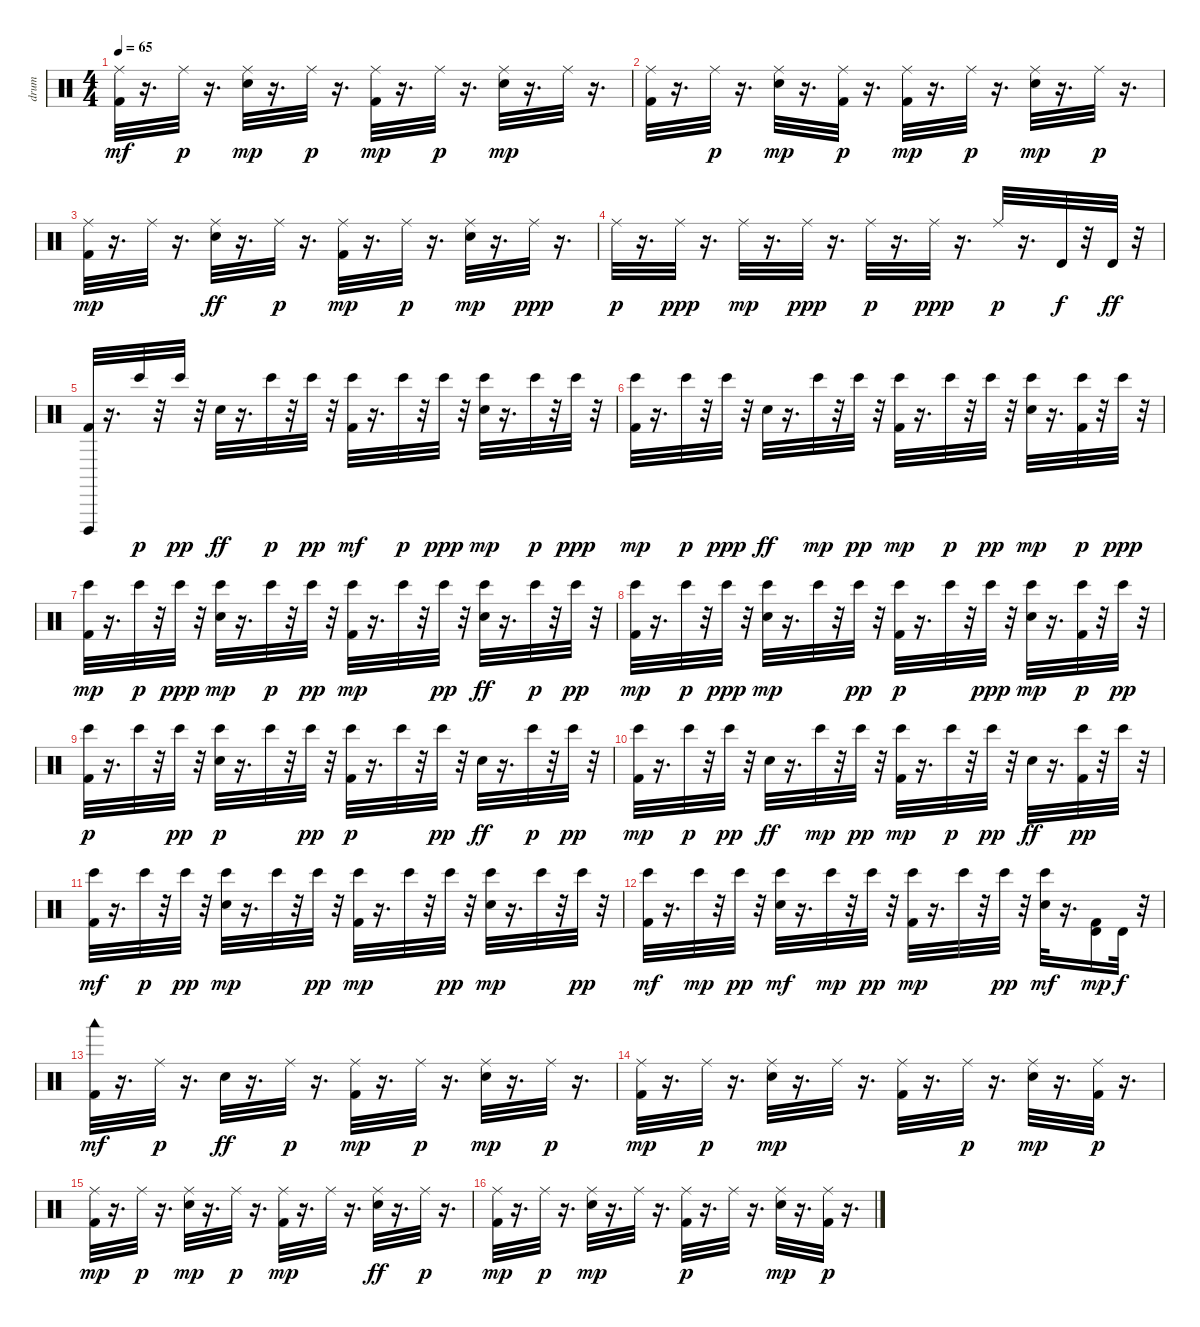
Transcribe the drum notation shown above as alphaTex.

\track ("drum" "drum") {instrument percussion}
\staff {score}
\articulation defaults
\ts (4 4)
\tempo 65
\clef neutral
\ks c
("Ride (middle)" "Kick (hit) 2").32{dy mf} r.16{d} "Ride (middle)".32{dy p} r.16{d} ("Snare (hit) 2" "Ride (middle)").32{dy mp} r.16{d} "Ride (middle)".32{dy p} r.16{d} ("Kick (hit) 2" "Ride (middle)").32{dy mp} r.16{d} "Ride (middle)".32{dy p} r.16{d} ("Snare (hit) 2" "Ride (middle)").32{dy mp} r.16{d} "Ride (middle)".32 r.16{d} |
("Kick (hit) 2" "Ride (middle)").32 r.16{d} "Ride (middle)".32{dy p} r.16{d} ("Snare (hit) 2" "Ride (middle)").32{dy mp} r.16{d} ("Kick (hit) 2" "Ride (middle)").32{dy p} r.16{d} ("Kick (hit) 2" "Ride (middle)").32{dy mp} r.16{d} "Ride (middle)".32{dy p} r.16{d} ("Snare (hit) 2" "Ride (middle)").32{dy mp} r.16{d} "Ride (middle)".32{dy p} r.16{d} |
("Ride (middle)" "Kick (hit) 2").32{dy mp} r.16{d} "Ride (middle)".32 r.16{d} ("Ride (middle)" "Snare (hit) 2").32{dy ff} r.16{d} "Ride (middle)".32{dy p} r.16{d} ("Kick (hit) 2" "Ride (middle)").32{dy mp} r.16{d} "Ride (middle)".32{dy p} r.16{d} ("Snare (hit) 2" "Ride (middle)").32{dy mp} r.16{d} "Ride (middle)".32{dy ppp} r.16{d} |
"Ride (middle)".32{dy p} r.16{d} "Ride (middle)".32{dy ppp} r.16{d} "Ride (middle)".32{dy mp} r.16{d} "Ride (middle)".32{dy ppp} r.16{d} "Ride (middle)".32{dy p} r.16{d} "Ride (middle)".32{dy ppp} r.16{d} "Ride (middle)".32{dy p} r.16{d} "Timbale high (hit)".32{dy f} r.32 "Timbale high (hit)".32{dy ff} r.32 |
("Kick (hit) 2" "Cuica (open)").32 r.16{d} "Bongo High (hit)".32{dy p} r.32 "Bongo High (hit)".32{dy pp} r.32 "Snare (hit) 2".32{dy ff} r.16{d} "Bongo High (hit)".32{dy p} r.32 "Bongo High (hit)".32{dy pp} r.32 ("Bongo High (hit)" "Kick (hit) 2").32{dy mf} r.16{d} "Bongo High (hit)".32{dy p} r.32 "Bongo High (hit)".32{dy ppp} r.32 ("Snare (hit) 2" "Bongo High (hit)").32{dy mp} r.16{d} "Bongo High (hit)".32{dy p} r.32 "Bongo High (hit)".32{dy ppp} r.32 |
("Kick (hit) 2" "Bongo High (hit)").32{dy mp} r.16{d} "Bongo High (hit)".32{dy p} r.32 "Bongo High (hit)".32{dy ppp} r.32 "Snare (hit) 2".32{dy ff} r.16{d} "Bongo High (hit)".32{dy mp} r.32 "Bongo High (hit)".32{dy pp} r.32 ("Kick (hit) 2" "Bongo High (hit)").32{dy mp} r.16{d} "Bongo High (hit)".32{dy p} r.32 "Bongo High (hit)".32{dy pp} r.32 ("Snare (hit) 2" "Bongo High (hit)").32{dy mp} r.16{d} ("Kick (hit) 2" "Bongo High (hit)").32{dy p} r.32 "Bongo High (hit)".32{dy ppp} r.32 |
("Kick (hit) 2" "Bongo High (hit)").32{dy mp} r.16{d} "Bongo High (hit)".32{dy p} r.32 "Bongo High (hit)".32{dy ppp} r.32 ("Snare (hit) 2" "Bongo High (hit)").32{dy mp} r.16{d} "Bongo High (hit)".32{dy p} r.32 "Bongo High (hit)".32{dy pp} r.32 ("Bongo High (hit)" "Kick (hit) 2").32{dy mp} r.16{d} "Bongo High (hit)".32 r.32 "Bongo High (hit)".32{dy pp} r.32 ("Bongo High (hit)" "Snare (hit) 2").32{dy ff} r.16{d} "Bongo High (hit)".32{dy p} r.32 "Bongo High (hit)".32{dy pp} r.32 |
("Kick (hit) 2" "Bongo High (hit)").32{dy mp} r.16{d} "Bongo High (hit)".32{dy p} r.32 "Bongo High (hit)".32{dy ppp} r.32 ("Snare (hit) 2" "Bongo High (hit)").32{dy mp} r.16{d} "Bongo High (hit)".32 r.32 "Bongo High (hit)".32{dy pp} r.32 ("Kick (hit) 2" "Bongo High (hit)").32{dy p} r.16{d} "Bongo High (hit)".32 r.32 "Bongo High (hit)".32{dy ppp} r.32 ("Snare (hit) 2" "Bongo High (hit)").32{dy mp} r.16{d} ("Kick (hit) 2" "Bongo High (hit)").32{dy p} r.32 "Bongo High (hit)".32{dy pp} r.32 |
("Kick (hit) 2" "Bongo High (hit)").32{dy p} r.16{d} "Bongo High (hit)".32 r.32 "Bongo High (hit)".32{dy pp} r.32 ("Snare (hit) 2" "Bongo High (hit)").32{dy p} r.16{d} "Bongo High (hit)".32 r.32 "Bongo High (hit)".32{dy pp} r.32 ("Kick (hit) 2" "Bongo High (hit)").32{dy p} r.16{d} "Bongo High (hit)".32 r.32 "Bongo High (hit)".32{dy pp} r.32 "Snare (hit) 2".32{dy ff} r.16{d} "Bongo High (hit)".32{dy p} r.32 "Bongo High (hit)".32{dy pp} r.32 |
("Bongo High (hit)" "Kick (hit) 2").32{dy mp} r.16{d} "Bongo High (hit)".32{dy p} r.32 "Bongo High (hit)".32{dy pp} r.32 "Snare (hit) 2".32{dy ff} r.16{d} "Bongo High (hit)".32{dy mp} r.32 "Bongo High (hit)".32{dy pp} r.32 ("Kick (hit) 2" "Bongo High (hit)").32{dy mp} r.16{d} "Bongo High (hit)".32{dy p} r.32 "Bongo High (hit)".32{dy pp} r.32 "Snare (hit) 2".32{dy ff} r.16{d} ("Kick (hit) 2" "Bongo High (hit)").32{dy pp} r.32 "Bongo High (hit)".32 r.32 |
("Bongo High (hit)" "Kick (hit) 2").32{dy mf} r.16{d} "Bongo High (hit)".32{dy p} r.32 "Bongo High (hit)".32{dy pp} r.32 ("Snare (hit) 2" "Bongo High (hit)").32{dy mp} r.16{d} "Bongo High (hit)".32 r.32 "Bongo High (hit)".32{dy pp} r.32 ("Bongo High (hit)" "Kick (hit) 2").32{dy mp} r.16{d} "Bongo High (hit)".32 r.32 "Bongo High (hit)".32{dy pp} r.32 ("Snare (hit) 2" "Bongo High (hit)").32{dy mp} r.16{d} "Bongo High (hit)".32 r.32 "Bongo High (hit)".32{dy pp} r.32 |
("Bongo High (hit)" "Kick (hit) 2").32{dy mf} r.16{d} "Bongo High (hit)".32{dy mp} r.32 "Bongo High (hit)".32{dy pp} r.32 ("Snare (hit) 2" "Bongo High (hit)").32{dy mf} r.16{d} "Bongo High (hit)".32{dy mp} r.32 "Bongo High (hit)".32{dy pp} r.32 ("Kick (hit) 2" "Bongo High (hit)").32{dy mp} r.16{d} "Bongo High (hit)".32 r.32 "Bongo High (hit)".32{dy pp} r.32 ("Snare (hit) 2" "Bongo High (hit)").32{dy mf} r.16{d} ("Kick (hit) 2" "Timbale high (hit)").16{dy mp} "Timbale high (hit)".32{dy f} r.32 |
("Kick (hit) 2" "Woodblock low (hit)").32{dy mf} r.16{d} "Ride (middle)".32{dy p} r.16{d} "Snare (hit) 2".32{dy ff} r.16{d} "Ride (middle)".32{dy p} r.16{d} ("Kick (hit) 2" "Ride (middle)").32{dy mp} r.16{d} "Ride (middle)".32{dy p} r.16{d} ("Snare (hit) 2" "Ride (middle)").32{dy mp} r.16{d} "Ride (middle)".32{dy p} r.16{d} |
("Kick (hit) 2" "Ride (middle)").32{dy mp} r.16{d} "Ride (middle)".32{dy p} r.16{d} ("Snare (hit) 2" "Ride (middle)").32{dy mp} r.16{d} "Ride (middle)".32 r.16{d} ("Kick (hit) 2" "Ride (middle)").32 r.16{d} "Ride (middle)".32{dy p} r.16{d} ("Snare (hit) 2" "Ride (middle)").32{dy mp} r.16{d} ("Kick (hit) 2" "Ride (middle)").32{dy p} r.16{d} |
("Kick (hit) 2" "Ride (middle)").32{dy mp} r.16{d} "Ride (middle)".32{dy p} r.16{d} ("Snare (hit) 2" "Ride (middle)").32{dy mp} r.16{d} "Ride (middle)".32{dy p} r.16{d} ("Ride (middle)" "Kick (hit) 2").32{dy mp} r.16{d} "Ride (middle)".32 r.16{d} ("Ride (middle)" "Snare (hit) 2").32{dy ff} r.16{d} "Ride (middle)".32{dy p} r.16{d} |
("Kick (hit) 2" "Ride (middle)").32{dy mp} r.16{d} "Ride (middle)".32{dy p} r.16{d} ("Snare (hit) 2" "Ride (middle)").32{dy mp} r.16{d} "Ride (middle)".32 r.16{d} ("Kick (hit) 2" "Ride (middle)").32{dy p} r.16{d} "Ride (middle)".32 r.16{d} ("Snare (hit) 2" "Ride (middle)").32{dy mp} r.16{d} ("Kick (hit) 2" "Ride (middle)").32{dy p} r.16{d}
